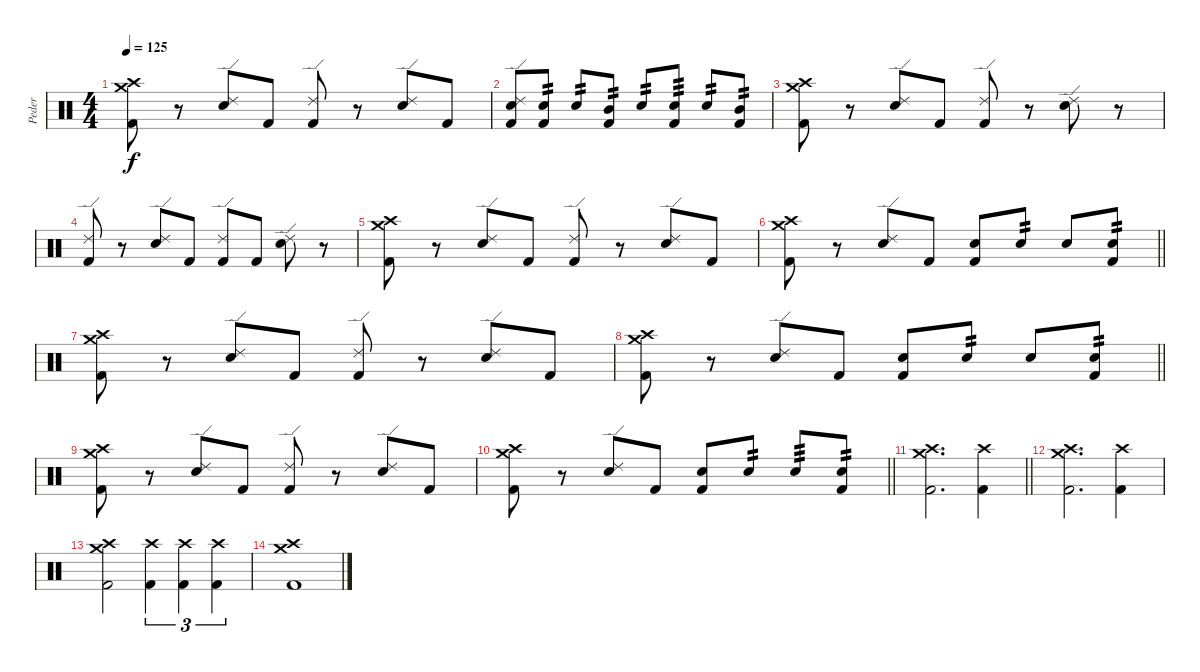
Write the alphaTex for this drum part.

\track ("Peder" "Peder") {instrument percussion}
\staff {score}
\articulation defaults
\ts (4 4)
\tempo 125
\clef neutral
\ks c
("Crash medium (hit)" "Crash high (hit)" "Kick (hit) 2").8{dy f} r.8 ("Ride (edge) 2" "Electric Snare (hit)").8 "Kick (hit) 2".8 ("Ride (edge) 2" "Kick (hit) 2").8 r.8 ("Ride (edge) 2" "Electric Snare (hit)").8 "Kick (hit) 2".8 |
("Ride (edge) 2" "Electric Snare (hit)" "Kick (hit) 2").8 ("Electric Snare (hit)" "Kick (hit) 2").8{tp 2} "Electric Snare (hit)".8{tp 2} ("Mid Tom (hit)" "Kick (hit) 2").8{tp 2} "Electric Snare (hit)".8{tp 2} ("Electric Snare (hit)" "Kick (hit) 2").8{tp 3} "Electric Snare (hit)".8{tp 2} ("Mid Tom (hit)" "Kick (hit) 2").8{tp 2} |
("Crash medium (hit)" "Crash high (hit)" "Kick (hit) 2").8 r.8 ("Ride (edge) 2" "Electric Snare (hit)").8 "Kick (hit) 2".8 ("Ride (edge) 2" "Kick (hit) 2").8 r.8 ("Ride (edge) 2" "Electric Snare (hit)").8 r.8 |
("Ride (edge) 2" "Kick (hit) 2").8 r.8 ("Ride (edge) 2" "Electric Snare (hit)").8 "Kick (hit) 2".8 ("Ride (edge) 2" "Kick (hit) 2").8 "Kick (hit) 2".8 ("Ride (edge) 2" "Electric Snare (hit)").8 r.8 |
("Crash medium (hit)" "Crash high (hit)" "Kick (hit) 2").8 r.8 ("Ride (edge) 2" "Electric Snare (hit)").8 "Kick (hit) 2".8 ("Ride (edge) 2" "Kick (hit) 2").8 r.8 ("Ride (edge) 2" "Electric Snare (hit)").8 "Kick (hit) 2".8 |
\barLineRight lightlight
("Crash medium (hit)" "Crash high (hit)" "Kick (hit) 2").8 r.8 ("Ride (edge) 2" "Electric Snare (hit)").8 "Kick (hit) 2".8 ("Electric Snare (hit)" "Kick (hit) 2").8 "Electric Snare (hit)".8{tp 2} "Electric Snare (hit)".8 ("Electric Snare (hit)" "Kick (hit) 2").8{tp 2} |
("Crash medium (hit)" "Crash high (hit)" "Kick (hit) 2").8 r.8 ("Ride (edge) 2" "Electric Snare (hit)").8 "Kick (hit) 2".8 ("Ride (edge) 2" "Kick (hit) 2").8 r.8 ("Ride (edge) 2" "Electric Snare (hit)").8 "Kick (hit) 2".8 |
\barLineRight lightlight
("Crash medium (hit)" "Crash high (hit)" "Kick (hit) 2").8 r.8 ("Ride (edge) 2" "Electric Snare (hit)").8 "Kick (hit) 2".8 ("Electric Snare (hit)" "Kick (hit) 2").8 "Electric Snare (hit)".8{tp 2} "Electric Snare (hit)".8 ("Electric Snare (hit)" "Kick (hit) 2").8{tp 2} |
("Crash medium (hit)" "Crash high (hit)" "Kick (hit) 2").8 r.8 ("Ride (edge) 2" "Electric Snare (hit)").8 "Kick (hit) 2".8 ("Ride (edge) 2" "Kick (hit) 2").8 r.8 ("Ride (edge) 2" "Electric Snare (hit)").8 "Kick (hit) 2".8 |
\barLineRight lightlight
("Crash medium (hit)" "Crash high (hit)" "Kick (hit) 2").8 r.8 ("Ride (edge) 2" "Electric Snare (hit)").8 "Kick (hit) 2".8 ("Electric Snare (hit)" "Kick (hit) 2").8 "Electric Snare (hit)".8{tp 2} "Electric Snare (hit)".8{tp 3} ("Electric Snare (hit)" "Kick (hit) 2").8{tp 2} |
\barLineRight lightlight
("Crash high (hit)" "Crash medium (hit)" "Kick (hit) 2").2{d} ("Crash high (hit)" "Kick (hit) 2").4 |
("Crash high (hit)" "Crash medium (hit)" "Kick (hit) 2").2{d} ("Crash high (hit)" "Kick (hit) 2").4 |
("Crash high (hit)" "Crash medium (hit)" "Kick (hit) 2").2 ("Crash high (hit)" "Kick (hit) 2").4{tu (3 2)} ("Crash high (hit)" "Kick (hit) 2").4{tu (3 2)} ("Crash high (hit)" "Kick (hit) 2").4{tu (3 2)} |
("Crash high (hit)" "Crash medium (hit)" "Kick (hit) 2").1
